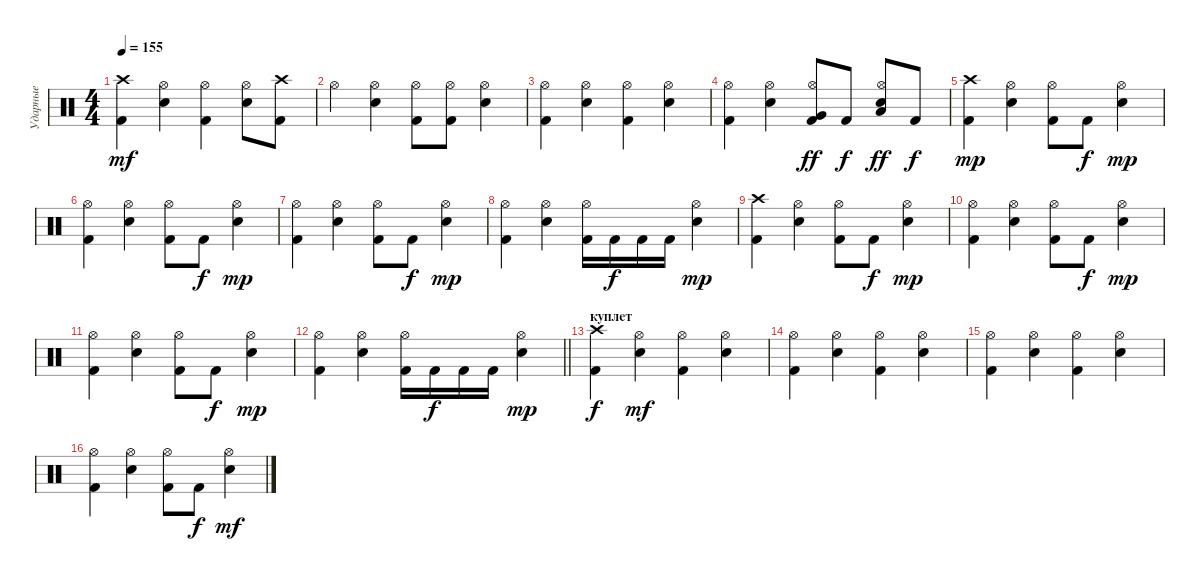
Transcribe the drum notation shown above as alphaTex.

\track ("Ударные" "Ударные") {instrument percussion}
\staff {score}
\articulation defaults
\ts (4 4)
\tempo 155
\clef neutral
\ks c
("Kick (hit) 2" "Crash high (hit)").4{dy mf} ("Snare (hit) 2" "Hi-Hat (open)").4 ("Kick (hit) 2" "Hi-Hat (open)").4 ("Snare (hit) 2" "Hi-Hat (open)").8 ("Kick (hit) 2" "Crash high (hit)").8 |
"Hi-Hat (open)".4 ("Snare (hit) 2" "Hi-Hat (open)").4 ("Kick (hit) 2" "Hi-Hat (open)").8 ("Kick (hit) 2" "Hi-Hat (open)").8 ("Snare (hit) 2" "Hi-Hat (open)").4 |
("Kick (hit) 2" "Hi-Hat (open)").4 ("Snare (hit) 2" "Hi-Hat (open)").4 ("Kick (hit) 2" "Hi-Hat (open)").4 ("Snare (hit) 2" "Hi-Hat (open)").4 |
("Kick (hit) 2" "Hi-Hat (open)").4 ("Snare (hit) 2" "Hi-Hat (open)").4 ("Kick (hit) 2" "Hi-Hat (open)" "Very Low Tom (hit)").8{dy ff} "Kick (hit) 2".8{dy f} ("Snare (hit) 2" "Hi-Hat (open)" "Low Floor Tom (hit)").8{dy ff} "Kick (hit) 2".8{dy f} |
("Kick (hit) 2" "Crash high (hit)").4{dy mp} ("Snare (hit) 2" "Hi-Hat (open)").4 ("Kick (hit) 2" "Hi-Hat (open)").8 "Kick (hit) 2".8{dy f} ("Snare (hit) 2" "Hi-Hat (open)").4{dy mp} |
("Kick (hit) 2" "Hi-Hat (open)").4 ("Snare (hit) 2" "Hi-Hat (open)").4 ("Kick (hit) 2" "Hi-Hat (open)").8 "Kick (hit) 2".8{dy f} ("Snare (hit) 2" "Hi-Hat (open)").4{dy mp} |
("Kick (hit) 2" "Hi-Hat (open)").4 ("Snare (hit) 2" "Hi-Hat (open)").4 ("Kick (hit) 2" "Hi-Hat (open)").8 "Kick (hit) 2".8{dy f} ("Snare (hit) 2" "Hi-Hat (open)").4{dy mp} |
("Kick (hit) 2" "Hi-Hat (open)").4 ("Snare (hit) 2" "Hi-Hat (open)").4 ("Kick (hit) 2" "Hi-Hat (open)").16 "Kick (hit) 2".16{dy f} "Kick (hit) 2".16 "Kick (hit) 2".16 ("Snare (hit) 2" "Hi-Hat (open)").4{dy mp} |
("Kick (hit) 2" "Crash high (hit)").4 ("Snare (hit) 2" "Hi-Hat (open)").4 ("Kick (hit) 2" "Hi-Hat (open)").8 "Kick (hit) 2".8{dy f} ("Snare (hit) 2" "Hi-Hat (open)").4{dy mp} |
("Kick (hit) 2" "Hi-Hat (open)").4 ("Snare (hit) 2" "Hi-Hat (open)").4 ("Kick (hit) 2" "Hi-Hat (open)").8 "Kick (hit) 2".8{dy f} ("Snare (hit) 2" "Hi-Hat (open)").4{dy mp} |
("Kick (hit) 2" "Hi-Hat (open)").4 ("Snare (hit) 2" "Hi-Hat (open)").4 ("Kick (hit) 2" "Hi-Hat (open)").8 "Kick (hit) 2".8{dy f} ("Snare (hit) 2" "Hi-Hat (open)").4{dy mp} |
\barLineRight lightlight
("Kick (hit) 2" "Hi-Hat (open)").4 ("Snare (hit) 2" "Hi-Hat (open)").4 ("Kick (hit) 2" "Hi-Hat (open)").16 "Kick (hit) 2".16{dy f} "Kick (hit) 2".16 "Kick (hit) 2".16 ("Snare (hit) 2" "Hi-Hat (open)").4{dy mp} |
\section ("" "куплет")
("Kick (hit) 2" "Crash high (hit)").4{dy f} ("Snare (hit) 2" "Hi-Hat (open)").4{dy mf} ("Kick (hit) 2" "Hi-Hat (open)").4 ("Snare (hit) 2" "Hi-Hat (open)").4 |
("Kick (hit) 2" "Hi-Hat (open)").4 ("Snare (hit) 2" "Hi-Hat (open)").4 ("Kick (hit) 2" "Hi-Hat (open)").4 ("Snare (hit) 2" "Hi-Hat (open)").4 |
("Kick (hit) 2" "Hi-Hat (open)").4 ("Snare (hit) 2" "Hi-Hat (open)").4 ("Kick (hit) 2" "Hi-Hat (open)").4 ("Snare (hit) 2" "Hi-Hat (open)").4 |
("Kick (hit) 2" "Hi-Hat (open)").4 ("Snare (hit) 2" "Hi-Hat (open)").4 ("Kick (hit) 2" "Hi-Hat (open)").8 "Kick (hit) 2".8{dy f} ("Snare (hit) 2" "Hi-Hat (open)").4{dy mf}
